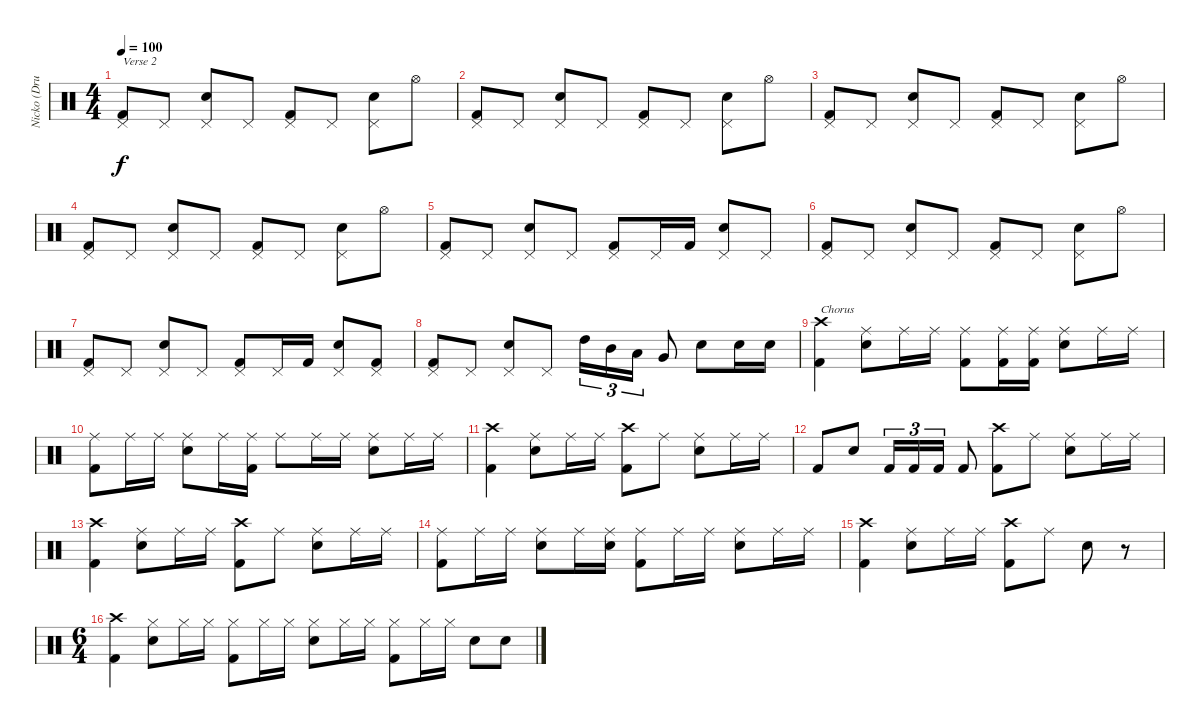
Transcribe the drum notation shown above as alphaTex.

\track ("Nicko (Drums)" "Nicko (Dru") {instrument percussion}
\staff {score}
\articulation defaults
\ts (4 4)
\tempo 100
\clef neutral
\ks c
("Pedal Hi-Hat (hit)" "Kick (hit) 2").8{txt "Verse 2" dy f} "Pedal Hi-Hat (hit)".8 ("Pedal Hi-Hat (hit)" "Snare (hit) 2").8 "Pedal Hi-Hat (hit)".8 ("Pedal Hi-Hat (hit)" "Kick (hit) 2").8 "Pedal Hi-Hat (hit)".8 ("Pedal Hi-Hat (hit)" "Snare (hit) 2").8 "Hi-Hat (open)".8 |
("Pedal Hi-Hat (hit)" "Kick (hit) 2").8 "Pedal Hi-Hat (hit)".8 ("Pedal Hi-Hat (hit)" "Snare (hit) 2").8 "Pedal Hi-Hat (hit)".8 ("Pedal Hi-Hat (hit)" "Kick (hit) 2").8 "Pedal Hi-Hat (hit)".8 ("Pedal Hi-Hat (hit)" "Snare (hit) 2").8 "Hi-Hat (open)".8 |
("Pedal Hi-Hat (hit)" "Kick (hit) 2").8 "Pedal Hi-Hat (hit)".8 ("Pedal Hi-Hat (hit)" "Snare (hit) 2").8 "Pedal Hi-Hat (hit)".8 ("Pedal Hi-Hat (hit)" "Kick (hit) 2").8 "Pedal Hi-Hat (hit)".8 ("Pedal Hi-Hat (hit)" "Snare (hit) 2").8 "Hi-Hat (open)".8 |
("Pedal Hi-Hat (hit)" "Kick (hit) 2").8 "Pedal Hi-Hat (hit)".8 ("Pedal Hi-Hat (hit)" "Snare (hit) 2").8 "Pedal Hi-Hat (hit)".8 ("Pedal Hi-Hat (hit)" "Kick (hit) 2").8 "Pedal Hi-Hat (hit)".8 ("Pedal Hi-Hat (hit)" "Snare (hit) 2").8 "Hi-Hat (open)".8 |
("Pedal Hi-Hat (hit)" "Kick (hit) 2").8 "Pedal Hi-Hat (hit)".8 ("Pedal Hi-Hat (hit)" "Snare (hit) 2").8 "Pedal Hi-Hat (hit)".8 ("Pedal Hi-Hat (hit)" "Kick (hit) 2").8 "Pedal Hi-Hat (hit)".16 "Kick (hit) 2".16 ("Pedal Hi-Hat (hit)" "Snare (hit) 2").8 "Pedal Hi-Hat (hit)".8 |
("Pedal Hi-Hat (hit)" "Kick (hit) 2").8 "Pedal Hi-Hat (hit)".8 ("Pedal Hi-Hat (hit)" "Snare (hit) 2").8 "Pedal Hi-Hat (hit)".8 ("Pedal Hi-Hat (hit)" "Kick (hit) 2").8 "Pedal Hi-Hat (hit)".8 ("Pedal Hi-Hat (hit)" "Snare (hit) 2").8 "Hi-Hat (open)".8 |
("Pedal Hi-Hat (hit)" "Kick (hit) 2").8 "Pedal Hi-Hat (hit)".8 ("Pedal Hi-Hat (hit)" "Snare (hit) 2").8 "Pedal Hi-Hat (hit)".8 ("Pedal Hi-Hat (hit)" "Kick (hit) 2").8 "Pedal Hi-Hat (hit)".16 "Kick (hit) 2".16 ("Pedal Hi-Hat (hit)" "Snare (hit) 2").8 ("Pedal Hi-Hat (hit)" "Kick (hit) 2").8 |
("Pedal Hi-Hat (hit)" "Kick (hit) 2").8 "Pedal Hi-Hat (hit)".8 ("Pedal Hi-Hat (hit)" "Snare (hit) 2").8 "Pedal Hi-Hat (hit)".8 "High Tom (hit)".16{tu (3 2)} "Mid Tom (hit)".16{tu (3 2)} "Low Tom (hit)".16{tu (3 2)} "Very Low Tom (hit)".8 "Snare (hit) 2".8 "Snare (hit) 2".16 "Snare (hit) 2".16 |
("Crash high (hit)" "Kick (hit) 2").4{txt "Chorus"} ("Ride (middle)" "Snare (hit) 2").8 "Ride (middle)".16 "Ride (middle)".16 ("Ride (middle)" "Kick (hit) 2").8 ("Ride (middle)" "Kick (hit) 2").16 ("Ride (middle)" "Kick (hit) 2").16 ("Ride (middle)" "Snare (hit) 2").8 "Ride (middle)".16 "Ride (middle)".16 |
("Ride (middle)" "Kick (hit) 2").8 "Ride (middle)".16 "Ride (middle)".16 ("Ride (middle)" "Snare (hit) 2").8 "Ride (middle)".16 ("Ride (middle)" "Kick (hit) 2").16 "Ride (middle)".8 "Ride (middle)".16 "Ride (middle)".16 ("Ride (middle)" "Snare (hit) 2").8 "Ride (middle)".16 "Ride (middle)".16 |
("Crash high (hit)" "Kick (hit) 2").4 ("Ride (middle)" "Snare (hit) 2").8 "Ride (middle)".16 "Ride (middle)".16 ("Crash high (hit)" "Kick (hit) 2").8 "Ride (middle)".8 ("Ride (middle)" "Snare (hit) 2").8 "Ride (middle)".16 "Ride (middle)".16 |
"Kick (hit) 2".8 "Snare (hit) 2".8 "Kick (hit) 2".16{tu (3 2)} "Kick (hit) 2".16{tu (3 2)} "Kick (hit) 2".16{tu (3 2)} "Kick (hit) 2".8 ("Crash high (hit)" "Kick (hit) 2").8 "Ride (middle)".8 ("Ride (middle)" "Snare (hit) 2").8 "Ride (middle)".16 "Ride (middle)".16 |
("Crash high (hit)" "Kick (hit) 2").4 ("Ride (middle)" "Snare (hit) 2").8 "Ride (middle)".16 "Ride (middle)".16 ("Crash high (hit)" "Kick (hit) 2").8 "Ride (middle)".8 ("Ride (middle)" "Snare (hit) 2").8 "Ride (middle)".16 "Ride (middle)".16 |
("Ride (middle)" "Kick (hit) 2").8 "Ride (middle)".16 "Ride (middle)".16 ("Ride (middle)" "Snare (hit) 2").8 "Ride (middle)".16 ("Ride (middle)" "Snare (hit) 2").16 ("Ride (middle)" "Kick (hit) 2").8 "Ride (middle)".16 "Ride (middle)".16 ("Ride (middle)" "Snare (hit) 2").8 "Ride (middle)".16 "Ride (middle)".16 |
("Crash high (hit)" "Kick (hit) 2").4 ("Ride (middle)" "Snare (hit) 2").8 "Ride (middle)".16 "Ride (middle)".16 ("Crash high (hit)" "Kick (hit) 2").8 "Ride (middle)".8 "Snare (hit) 2".8 r.8 |
\ts (6 4)
("Crash high (hit)" "Kick (hit) 2").4 ("Hi-Hat (closed)" "Snare (hit) 2").8 "Hi-Hat (closed)".16 "Hi-Hat (closed)".16 ("Hi-Hat (closed)" "Kick (hit) 2").8 "Hi-Hat (closed)".16 "Hi-Hat (closed)".16 ("Hi-Hat (closed)" "Snare (hit) 2").8 "Hi-Hat (closed)".16 "Hi-Hat (closed)".16 ("Hi-Hat (closed)" "Kick (hit) 2").8 "Hi-Hat (closed)".16 "Hi-Hat (closed)".16 "Snare (hit) 2".8 "Snare (hit) 2".8
